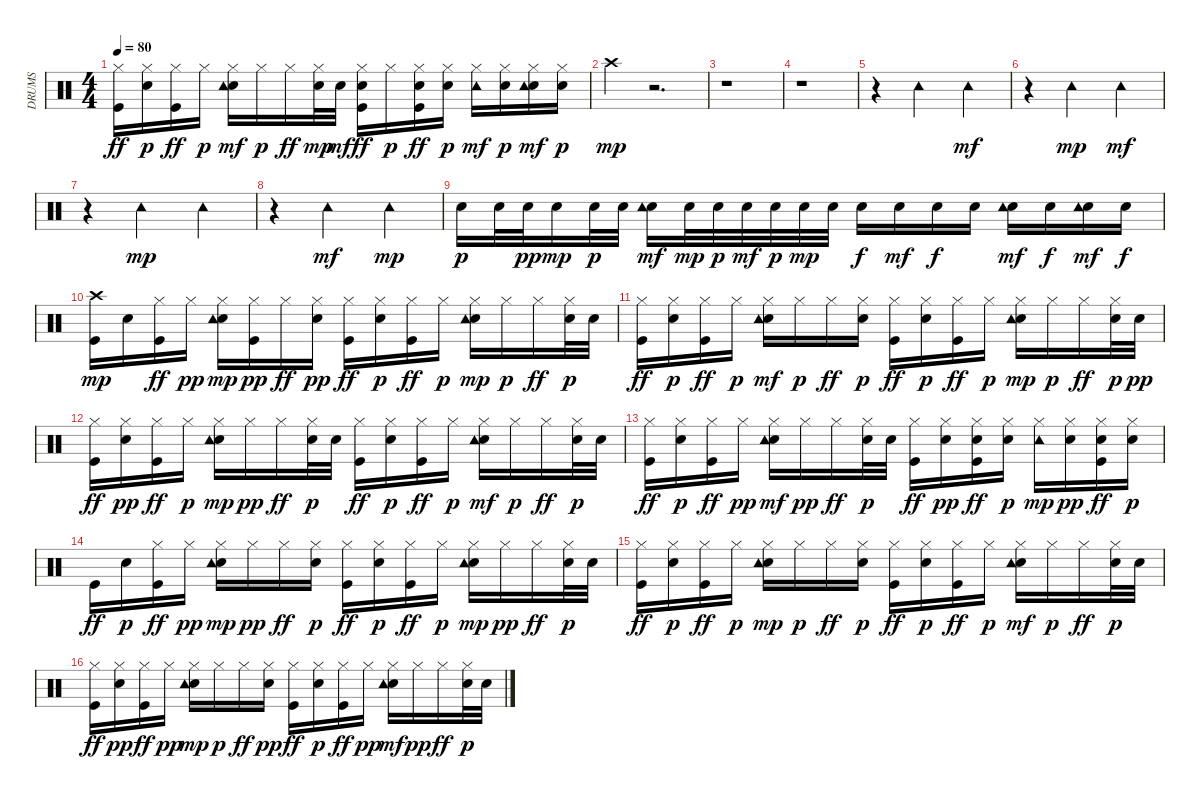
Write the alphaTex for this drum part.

\track ("DRUMS" "DRUMS") {instrument percussion}
\staff {score}
\articulation defaults
\ts (4 4)
\tempo 80
\clef neutral
\ks c
("Kick (hit)" "Hi-Hat (closed)").16{dy ff} ("Snare (hit) 2" "Hi-Hat (closed)").16{dy p} ("Kick (hit)" "Hi-Hat (closed)").16{dy ff} "Hi-Hat (closed)".16{dy p} ("Snare (hit) 2" "Hi-Hat (closed)" "Tambourine (hit)").16{dy mf} "Hi-Hat (closed)".16{dy p} "Hi-Hat (closed)".16{dy ff} ("Hi-Hat (closed)" "Snare (hit) 2").32{dy mp} "Snare (hit) 2".32{dy mf} ("Kick (hit)" "Snare (hit) 2" "Hi-Hat (closed)").16{dy ff} "Hi-Hat (closed)".16{dy p} ("Kick (hit)" "Snare (hit) 2" "Hi-Hat (closed)").16{dy ff} ("Snare (hit) 2" "Hi-Hat (closed)").16{dy p} ("Hi-Hat (closed)" "Tambourine (hit)").16{dy mf} ("Snare (hit) 2" "Hi-Hat (closed)").16{dy p} ("Snare (hit) 2" "Hi-Hat (closed)" "Tambourine (hit)").16{dy mf} ("Snare (hit) 2" "Hi-Hat (closed)").16{dy p} |
"Crash high (hit)".4{dy mp} r.2{d} |
r.1 |
r.1 |
r.4 "Tambourine (hit)".2 "Tambourine (hit)".4{dy mf} |
r.4 "Tambourine (hit)".2{dy mp} "Tambourine (hit)".4{dy mf} |
r.4 "Tambourine (hit)".2{dy mp} "Tambourine (hit)".4 |
r.4 "Tambourine (hit)".2{dy mf} "Tambourine (hit)".4{dy mp} |
"Snare (hit) 2".16{dy p} "Snare (hit) 2".32 "Snare (hit) 2".32{dy pp} "Snare (hit) 2".16{dy mp} "Snare (hit) 2".32{dy p} "Snare (hit) 2".32 ("Snare (hit) 2" "Tambourine (hit)").16{dy mf} "Snare (hit) 2".32{dy mp} "Snare (hit) 2".32{dy p} "Snare (hit) 2".32{dy mf} "Snare (hit) 2".32{dy p} "Snare (hit) 2".32{dy mp} "Snare (hit) 2".32 "Snare (hit) 2".16{dy f} "Snare (hit) 2".16{dy mf} "Snare (hit) 2".16{dy f} "Snare (hit) 2".16 ("Snare (hit) 2" "Tambourine (hit)").16{dy mf} "Snare (hit) 2".16{dy f} ("Snare (hit) 2" "Tambourine (hit)").16{dy mf} "Snare (hit) 2".16{dy f} |
("Kick (hit)" "Crash high (hit)").16{dy mp} "Snare (hit) 2".16 ("Kick (hit)" "Hi-Hat (closed)").16{dy ff} "Hi-Hat (closed)".16{dy pp} ("Snare (hit) 2" "Hi-Hat (closed)" "Tambourine (hit)").16{dy mp} ("Kick (hit)" "Hi-Hat (closed)").16{dy pp} "Hi-Hat (closed)".16{dy ff} ("Snare (hit) 2" "Hi-Hat (closed)").16{dy pp} ("Kick (hit)" "Hi-Hat (closed)").16{dy ff} ("Snare (hit) 2" "Hi-Hat (closed)").16{dy p} ("Kick (hit)" "Hi-Hat (closed)").16{dy ff} "Hi-Hat (closed)".16{dy p} ("Snare (hit) 2" "Hi-Hat (closed)" "Tambourine (hit)").16{dy mp} "Hi-Hat (closed)".16{dy p} "Hi-Hat (closed)".16{dy ff} ("Hi-Hat (closed)" "Snare (hit) 2").32{dy p} "Snare (hit) 2".32 |
("Kick (hit)" "Hi-Hat (closed)").16{dy ff} ("Snare (hit) 2" "Hi-Hat (closed)").16{dy p} ("Kick (hit)" "Hi-Hat (closed)").16{dy ff} "Hi-Hat (closed)".16{dy p} ("Snare (hit) 2" "Hi-Hat (closed)" "Tambourine (hit)").16{dy mf} "Hi-Hat (closed)".16{dy p} "Hi-Hat (closed)".16{dy ff} ("Snare (hit) 2" "Hi-Hat (closed)").16{dy p} ("Kick (hit)" "Hi-Hat (closed)").16{dy ff} ("Snare (hit) 2" "Hi-Hat (closed)").16{dy p} ("Kick (hit)" "Hi-Hat (closed)").16{dy ff} "Hi-Hat (closed)".16{dy p} ("Snare (hit) 2" "Hi-Hat (closed)" "Tambourine (hit)").16{dy mp} "Hi-Hat (closed)".16{dy p} "Hi-Hat (closed)".16{dy ff} ("Hi-Hat (closed)" "Snare (hit) 2").32{dy p} "Snare (hit) 2".32{dy pp} |
("Kick (hit)" "Hi-Hat (closed)").16{dy ff} ("Snare (hit) 2" "Hi-Hat (closed)").16{dy pp} ("Kick (hit)" "Hi-Hat (closed)").16{dy ff} "Hi-Hat (closed)".16{dy p} ("Snare (hit) 2" "Hi-Hat (closed)" "Tambourine (hit)").16{dy mp} "Hi-Hat (closed)".16{dy pp} "Hi-Hat (closed)".16{dy ff} ("Hi-Hat (closed)" "Snare (hit) 2").32{dy p} "Snare (hit) 2".32 ("Kick (hit)" "Hi-Hat (closed)").16{dy ff} ("Snare (hit) 2" "Hi-Hat (closed)").16{dy p} ("Kick (hit)" "Hi-Hat (closed)").16{dy ff} "Hi-Hat (closed)".16{dy p} ("Snare (hit) 2" "Hi-Hat (closed)" "Tambourine (hit)").16{dy mf} "Hi-Hat (closed)".16{dy p} "Hi-Hat (closed)".16{dy ff} ("Hi-Hat (closed)" "Snare (hit) 2").32{dy p} "Snare (hit) 2".32 |
("Kick (hit)" "Hi-Hat (closed)").16{dy ff} ("Snare (hit) 2" "Hi-Hat (closed)").16{dy p} ("Kick (hit)" "Hi-Hat (closed)").16{dy ff} "Hi-Hat (closed)".16{dy pp} ("Snare (hit) 2" "Hi-Hat (closed)" "Tambourine (hit)").16{dy mf} "Hi-Hat (closed)".16{dy pp} "Hi-Hat (closed)".16{dy ff} ("Hi-Hat (closed)" "Snare (hit) 2").32{dy p} "Snare (hit) 2".32 ("Kick (hit)" "Hi-Hat (closed)").16{dy ff} ("Snare (hit) 2" "Hi-Hat (closed)").16{dy pp} ("Kick (hit)" "Snare (hit) 2" "Hi-Hat (closed)").16{dy ff} ("Snare (hit) 2" "Hi-Hat (closed)").16{dy p} ("Hi-Hat (closed)" "Tambourine (hit)").16{dy mp} ("Snare (hit) 2" "Hi-Hat (closed)").16{dy pp} ("Kick (hit)" "Snare (hit) 2" "Hi-Hat (closed)").16{dy ff} ("Snare (hit) 2" "Hi-Hat (closed)").16{dy p} |
"Kick (hit)".16{dy ff} "Snare (hit) 2".16{dy p} ("Kick (hit)" "Hi-Hat (closed)").16{dy ff} "Hi-Hat (closed)".16{dy pp} ("Snare (hit) 2" "Hi-Hat (closed)" "Tambourine (hit)").16{dy mp} "Hi-Hat (closed)".16{dy pp} "Hi-Hat (closed)".16{dy ff} ("Snare (hit) 2" "Hi-Hat (closed)").16{dy p} ("Kick (hit)" "Hi-Hat (closed)").16{dy ff} ("Snare (hit) 2" "Hi-Hat (closed)").16{dy p} ("Kick (hit)" "Hi-Hat (closed)").16{dy ff} "Hi-Hat (closed)".16{dy p} ("Snare (hit) 2" "Hi-Hat (closed)" "Tambourine (hit)").16{dy mp} "Hi-Hat (closed)".16{dy pp} "Hi-Hat (closed)".16{dy ff} ("Hi-Hat (closed)" "Snare (hit) 2").32{dy p} "Snare (hit) 2".32 |
("Kick (hit)" "Hi-Hat (closed)").16{dy ff} ("Snare (hit) 2" "Hi-Hat (closed)").16{dy p} ("Kick (hit)" "Hi-Hat (closed)").16{dy ff} "Hi-Hat (closed)".16{dy p} ("Snare (hit) 2" "Hi-Hat (closed)" "Tambourine (hit)").16{dy mp} "Hi-Hat (closed)".16{dy p} "Hi-Hat (closed)".16{dy ff} ("Snare (hit) 2" "Hi-Hat (closed)").16{dy p} ("Kick (hit)" "Hi-Hat (closed)").16{dy ff} ("Snare (hit) 2" "Hi-Hat (closed)").16{dy p} ("Kick (hit)" "Hi-Hat (closed)").16{dy ff} "Hi-Hat (closed)".16{dy p} ("Snare (hit) 2" "Hi-Hat (closed)" "Tambourine (hit)").16{dy mf} "Hi-Hat (closed)".16{dy p} "Hi-Hat (closed)".16{dy ff} ("Hi-Hat (closed)" "Snare (hit) 2").32{dy p} "Snare (hit) 2".32 |
("Kick (hit)" "Hi-Hat (closed)").16{dy ff} ("Snare (hit) 2" "Hi-Hat (closed)").16{dy pp} ("Kick (hit)" "Hi-Hat (closed)").16{dy ff} "Hi-Hat (closed)".16{dy pp} ("Snare (hit) 2" "Hi-Hat (closed)" "Tambourine (hit)").16{dy mp} "Hi-Hat (closed)".16{dy p} "Hi-Hat (closed)".16{dy ff} ("Snare (hit) 2" "Hi-Hat (closed)").16{dy pp} ("Kick (hit)" "Hi-Hat (closed)").16{dy ff} ("Snare (hit) 2" "Hi-Hat (closed)").16{dy p} ("Kick (hit)" "Hi-Hat (closed)").16{dy ff} "Hi-Hat (closed)".16{dy pp} ("Snare (hit) 2" "Hi-Hat (closed)" "Tambourine (hit)").16{dy mf} "Hi-Hat (closed)".16{dy pp} "Hi-Hat (closed)".16{dy ff} ("Hi-Hat (closed)" "Snare (hit) 2").32{dy p} "Snare (hit) 2".32
